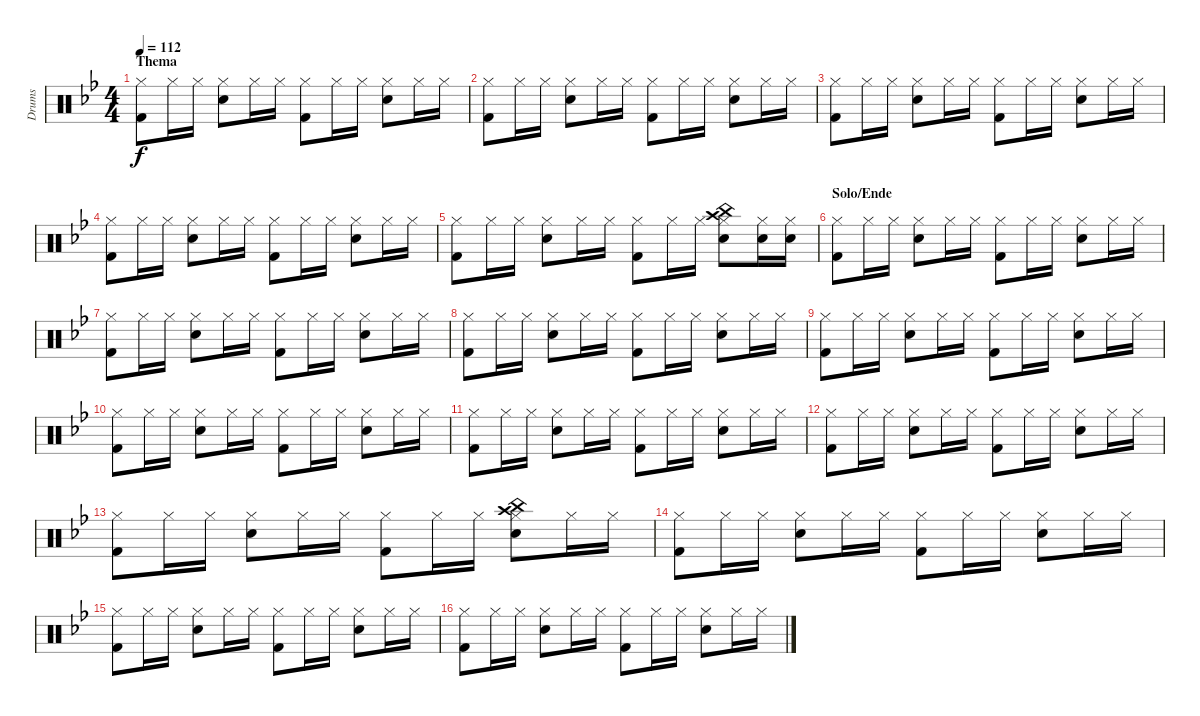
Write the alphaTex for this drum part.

\track ("Drums" "Drums") {instrument percussion}
\staff {score}
\articulation defaults
\ts (4 4)
\section ("" "Thema")
\tempo 112
\clef neutral
\ks bb
("Hi-Hat (closed)" "Kick (hit) 2").8{dy f} "Hi-Hat (closed)".16 "Hi-Hat (closed)".16 ("Snare (hit) 2" "Hi-Hat (closed)").8 "Hi-Hat (closed)".16 "Hi-Hat (closed)".16 ("Hi-Hat (closed)" "Kick (hit) 2").8 "Hi-Hat (closed)".16 "Hi-Hat (closed)".16 ("Snare (hit) 2" "Hi-Hat (closed)").8 "Hi-Hat (closed)".16 "Hi-Hat (closed)".16 |
("Hi-Hat (closed)" "Kick (hit) 2").8 "Hi-Hat (closed)".16 "Hi-Hat (closed)".16 ("Snare (hit) 2" "Hi-Hat (closed)").8 "Hi-Hat (closed)".16 "Hi-Hat (closed)".16 ("Hi-Hat (closed)" "Kick (hit) 2").8 "Hi-Hat (closed)".16 "Hi-Hat (closed)".16 ("Snare (hit) 2" "Hi-Hat (closed)").8 "Hi-Hat (closed)".16 "Hi-Hat (closed)".16 |
("Hi-Hat (closed)" "Kick (hit) 2").8 "Hi-Hat (closed)".16 "Hi-Hat (closed)".16 ("Snare (hit) 2" "Hi-Hat (closed)").8 "Hi-Hat (closed)".16 "Hi-Hat (closed)".16 ("Hi-Hat (closed)" "Kick (hit) 2").8 "Hi-Hat (closed)".16 "Hi-Hat (closed)".16 ("Snare (hit) 2" "Hi-Hat (closed)").8 "Hi-Hat (closed)".16 "Hi-Hat (closed)".16 |
("Hi-Hat (closed)" "Kick (hit) 2").8 "Hi-Hat (closed)".16 "Hi-Hat (closed)".16 ("Snare (hit) 2" "Hi-Hat (closed)").8 "Hi-Hat (closed)".16 "Hi-Hat (closed)".16 ("Hi-Hat (closed)" "Kick (hit) 2").8 "Hi-Hat (closed)".16 "Hi-Hat (closed)".16 ("Snare (hit) 2" "Hi-Hat (closed)").8 "Hi-Hat (closed)".16 "Hi-Hat (closed)".16 |
("Hi-Hat (closed)" "Kick (hit) 2").8 "Hi-Hat (closed)".16 "Hi-Hat (closed)".16 ("Snare (hit) 2" "Hi-Hat (closed)").8 "Hi-Hat (closed)".16 "Hi-Hat (closed)".16 ("Hi-Hat (closed)" "Kick (hit) 2").8 "Hi-Hat (closed)".16 "Hi-Hat (closed)".16 ("Snare (hit) 2" "Hi-Hat (closed)" "Crash high (hit)" "China (hit)").8 ("Hi-Hat (closed)" "Snare (hit) 2").16 ("Hi-Hat (closed)" "Snare (hit) 2").16 |
\section ("" "Solo/Ende")
("Hi-Hat (closed)" "Kick (hit) 2").8 "Hi-Hat (closed)".16 "Hi-Hat (closed)".16 ("Snare (hit) 2" "Hi-Hat (closed)").8 "Hi-Hat (closed)".16 "Hi-Hat (closed)".16 ("Hi-Hat (closed)" "Kick (hit) 2").8 "Hi-Hat (closed)".16 "Hi-Hat (closed)".16 ("Snare (hit) 2" "Hi-Hat (closed)").8 "Hi-Hat (closed)".16 "Hi-Hat (closed)".16 |
("Hi-Hat (closed)" "Kick (hit) 2").8 "Hi-Hat (closed)".16 "Hi-Hat (closed)".16 ("Snare (hit) 2" "Hi-Hat (closed)").8 "Hi-Hat (closed)".16 "Hi-Hat (closed)".16 ("Hi-Hat (closed)" "Kick (hit) 2").8 "Hi-Hat (closed)".16 "Hi-Hat (closed)".16 ("Snare (hit) 2" "Hi-Hat (closed)").8 "Hi-Hat (closed)".16 "Hi-Hat (closed)".16 |
("Hi-Hat (closed)" "Kick (hit) 2").8 "Hi-Hat (closed)".16 "Hi-Hat (closed)".16 ("Snare (hit) 2" "Hi-Hat (closed)").8 "Hi-Hat (closed)".16 "Hi-Hat (closed)".16 ("Hi-Hat (closed)" "Kick (hit) 2").8 "Hi-Hat (closed)".16 "Hi-Hat (closed)".16 ("Snare (hit) 2" "Hi-Hat (closed)").8 "Hi-Hat (closed)".16 "Hi-Hat (closed)".16 |
("Hi-Hat (closed)" "Kick (hit) 2").8 "Hi-Hat (closed)".16 "Hi-Hat (closed)".16 ("Snare (hit) 2" "Hi-Hat (closed)").8 "Hi-Hat (closed)".16 "Hi-Hat (closed)".16 ("Hi-Hat (closed)" "Kick (hit) 2").8 "Hi-Hat (closed)".16 "Hi-Hat (closed)".16 ("Snare (hit) 2" "Hi-Hat (closed)").8 "Hi-Hat (closed)".16 "Hi-Hat (closed)".16 |
("Hi-Hat (closed)" "Kick (hit) 2").8 "Hi-Hat (closed)".16 "Hi-Hat (closed)".16 ("Snare (hit) 2" "Hi-Hat (closed)").8 "Hi-Hat (closed)".16 "Hi-Hat (closed)".16 ("Hi-Hat (closed)" "Kick (hit) 2").8 "Hi-Hat (closed)".16 "Hi-Hat (closed)".16 ("Snare (hit) 2" "Hi-Hat (closed)").8 "Hi-Hat (closed)".16 "Hi-Hat (closed)".16 |
("Hi-Hat (closed)" "Kick (hit) 2").8 "Hi-Hat (closed)".16 "Hi-Hat (closed)".16 ("Snare (hit) 2" "Hi-Hat (closed)").8 "Hi-Hat (closed)".16 "Hi-Hat (closed)".16 ("Hi-Hat (closed)" "Kick (hit) 2").8 "Hi-Hat (closed)".16 "Hi-Hat (closed)".16 ("Snare (hit) 2" "Hi-Hat (closed)").8 "Hi-Hat (closed)".16 "Hi-Hat (closed)".16 |
("Hi-Hat (closed)" "Kick (hit) 2").8 "Hi-Hat (closed)".16 "Hi-Hat (closed)".16 ("Snare (hit) 2" "Hi-Hat (closed)").8 "Hi-Hat (closed)".16 "Hi-Hat (closed)".16 ("Hi-Hat (closed)" "Kick (hit) 2").8 "Hi-Hat (closed)".16 "Hi-Hat (closed)".16 ("Snare (hit) 2" "Hi-Hat (closed)").8 "Hi-Hat (closed)".16 "Hi-Hat (closed)".16 |
("Hi-Hat (closed)" "Kick (hit) 2").8 "Hi-Hat (closed)".16 "Hi-Hat (closed)".16 ("Snare (hit) 2" "Hi-Hat (closed)").8 "Hi-Hat (closed)".16 "Hi-Hat (closed)".16 ("Hi-Hat (closed)" "Kick (hit) 2").8 "Hi-Hat (closed)".16 "Hi-Hat (closed)".16 ("Snare (hit) 2" "Hi-Hat (closed)" "Crash high (hit)" "China (hit)").8 "Hi-Hat (closed)".16 "Hi-Hat (closed)".16 |
("Hi-Hat (closed)" "Kick (hit) 2").8 "Hi-Hat (closed)".16 "Hi-Hat (closed)".16 ("Snare (hit) 2" "Hi-Hat (closed)").8 "Hi-Hat (closed)".16 "Hi-Hat (closed)".16 ("Hi-Hat (closed)" "Kick (hit) 2").8 "Hi-Hat (closed)".16 "Hi-Hat (closed)".16 ("Snare (hit) 2" "Hi-Hat (closed)").8 "Hi-Hat (closed)".16 "Hi-Hat (closed)".16 |
("Hi-Hat (closed)" "Kick (hit) 2").8 "Hi-Hat (closed)".16 "Hi-Hat (closed)".16 ("Snare (hit) 2" "Hi-Hat (closed)").8 "Hi-Hat (closed)".16 "Hi-Hat (closed)".16 ("Hi-Hat (closed)" "Kick (hit) 2").8 "Hi-Hat (closed)".16 "Hi-Hat (closed)".16 ("Snare (hit) 2" "Hi-Hat (closed)").8 "Hi-Hat (closed)".16 "Hi-Hat (closed)".16 |
("Hi-Hat (closed)" "Kick (hit) 2").8 "Hi-Hat (closed)".16 "Hi-Hat (closed)".16 ("Snare (hit) 2" "Hi-Hat (closed)").8 "Hi-Hat (closed)".16 "Hi-Hat (closed)".16 ("Hi-Hat (closed)" "Kick (hit) 2").8 "Hi-Hat (closed)".16 "Hi-Hat (closed)".16 ("Snare (hit) 2" "Hi-Hat (closed)").8 "Hi-Hat (closed)".16 "Hi-Hat (closed)".16
